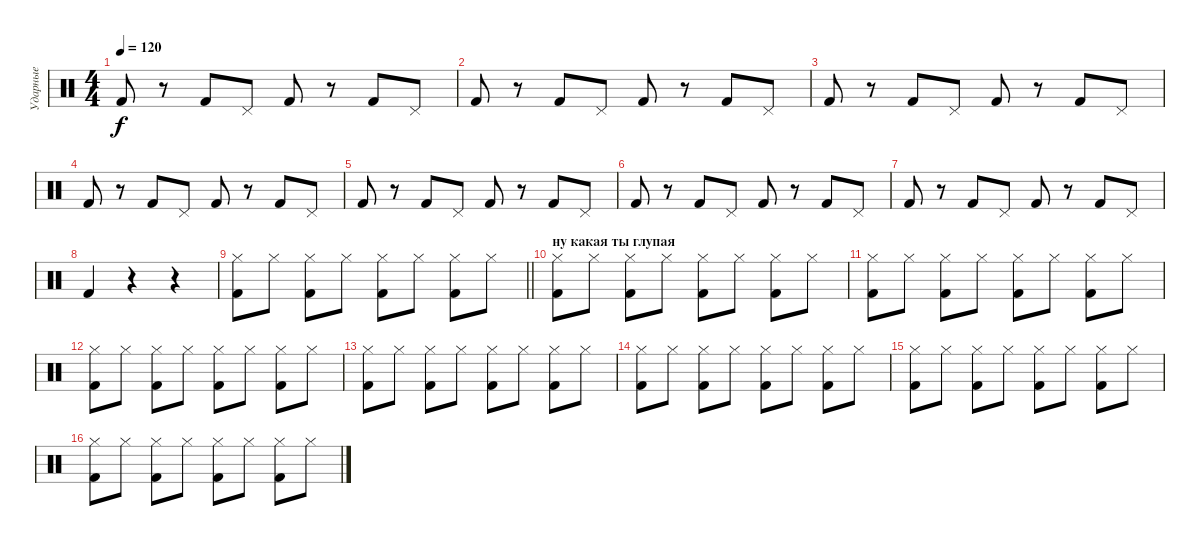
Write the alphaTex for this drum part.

\track ("Ударные" "Ударные") {instrument percussion}
\staff {score}
\articulation defaults
\ts (4 4)
\tempo 120
\clef neutral
\ks c "Kick (hit) 2".8{dy f}
r.8 "Kick (hit) 2".8 "Pedal Hi-Hat (hit)".8 "Kick (hit) 2".8 r.8 "Kick (hit) 2".8 "Pedal Hi-Hat (hit)".8 |
"Kick (hit) 2".8 r.8 "Kick (hit) 2".8 "Pedal Hi-Hat (hit)".8 "Kick (hit) 2".8 r.8 "Kick (hit) 2".8 "Pedal Hi-Hat (hit)".8 |
"Kick (hit) 2".8 r.8 "Kick (hit) 2".8 "Pedal Hi-Hat (hit)".8 "Kick (hit) 2".8 r.8 "Kick (hit) 2".8 "Pedal Hi-Hat (hit)".8 |
"Kick (hit) 2".8 r.8 "Kick (hit) 2".8 "Pedal Hi-Hat (hit)".8 "Kick (hit) 2".8 r.8 "Kick (hit) 2".8 "Pedal Hi-Hat (hit)".8 |
"Kick (hit) 2".8 r.8 "Kick (hit) 2".8 "Pedal Hi-Hat (hit)".8 "Kick (hit) 2".8 r.8 "Kick (hit) 2".8 "Pedal Hi-Hat (hit)".8 |
"Kick (hit) 2".8 r.8 "Kick (hit) 2".8 "Pedal Hi-Hat (hit)".8 "Kick (hit) 2".8 r.8 "Kick (hit) 2".8 "Pedal Hi-Hat (hit)".8 |
"Kick (hit) 2".8 r.8 "Kick (hit) 2".8 "Pedal Hi-Hat (hit)".8 "Kick (hit) 2".8 r.8 "Kick (hit) 2".8 "Pedal Hi-Hat (hit)".8 |
"Kick (hit) 2".4 r.4 r.4 |
\barLineRight lightlight
("Hi-Hat (closed)" "Kick (hit) 2").8 "Hi-Hat (closed)".8 ("Hi-Hat (closed)" "Kick (hit) 2").8 "Hi-Hat (closed)".8 ("Hi-Hat (closed)" "Kick (hit) 2").8 "Hi-Hat (closed)".8 ("Hi-Hat (closed)" "Kick (hit) 2").8 "Hi-Hat (closed)".8 |
\section ("" "ну какая ты глупая")
("Hi-Hat (closed)" "Kick (hit) 2").8 "Hi-Hat (closed)".8 ("Hi-Hat (closed)" "Kick (hit) 2").8 "Hi-Hat (closed)".8 ("Hi-Hat (closed)" "Kick (hit) 2").8 "Hi-Hat (closed)".8 ("Hi-Hat (closed)" "Kick (hit) 2").8 "Hi-Hat (closed)".8 |
("Hi-Hat (closed)" "Kick (hit) 2").8 "Hi-Hat (closed)".8 ("Hi-Hat (closed)" "Kick (hit) 2").8 "Hi-Hat (closed)".8 ("Hi-Hat (closed)" "Kick (hit) 2").8 "Hi-Hat (closed)".8 ("Hi-Hat (closed)" "Kick (hit) 2").8 "Hi-Hat (closed)".8 |
("Hi-Hat (closed)" "Kick (hit) 2").8 "Hi-Hat (closed)".8 ("Hi-Hat (closed)" "Kick (hit) 2").8 "Hi-Hat (closed)".8 ("Hi-Hat (closed)" "Kick (hit) 2").8 "Hi-Hat (closed)".8 ("Hi-Hat (closed)" "Kick (hit) 2").8 "Hi-Hat (closed)".8 |
("Hi-Hat (closed)" "Kick (hit) 2").8 "Hi-Hat (closed)".8 ("Hi-Hat (closed)" "Kick (hit) 2").8 "Hi-Hat (closed)".8 ("Hi-Hat (closed)" "Kick (hit) 2").8 "Hi-Hat (closed)".8 ("Hi-Hat (closed)" "Kick (hit) 2").8 "Hi-Hat (closed)".8 |
("Hi-Hat (closed)" "Kick (hit) 2").8 "Hi-Hat (closed)".8 ("Hi-Hat (closed)" "Kick (hit) 2").8 "Hi-Hat (closed)".8 ("Hi-Hat (closed)" "Kick (hit) 2").8 "Hi-Hat (closed)".8 ("Hi-Hat (closed)" "Kick (hit) 2").8 "Hi-Hat (closed)".8 |
("Hi-Hat (closed)" "Kick (hit) 2").8 "Hi-Hat (closed)".8 ("Hi-Hat (closed)" "Kick (hit) 2").8 "Hi-Hat (closed)".8 ("Hi-Hat (closed)" "Kick (hit) 2").8 "Hi-Hat (closed)".8 ("Hi-Hat (closed)" "Kick (hit) 2").8 "Hi-Hat (closed)".8 |
("Hi-Hat (closed)" "Kick (hit) 2").8 "Hi-Hat (closed)".8 ("Hi-Hat (closed)" "Kick (hit) 2").8 "Hi-Hat (closed)".8 ("Hi-Hat (closed)" "Kick (hit) 2").8 "Hi-Hat (closed)".8 ("Hi-Hat (closed)" "Kick (hit) 2").8 "Hi-Hat (closed)".8
